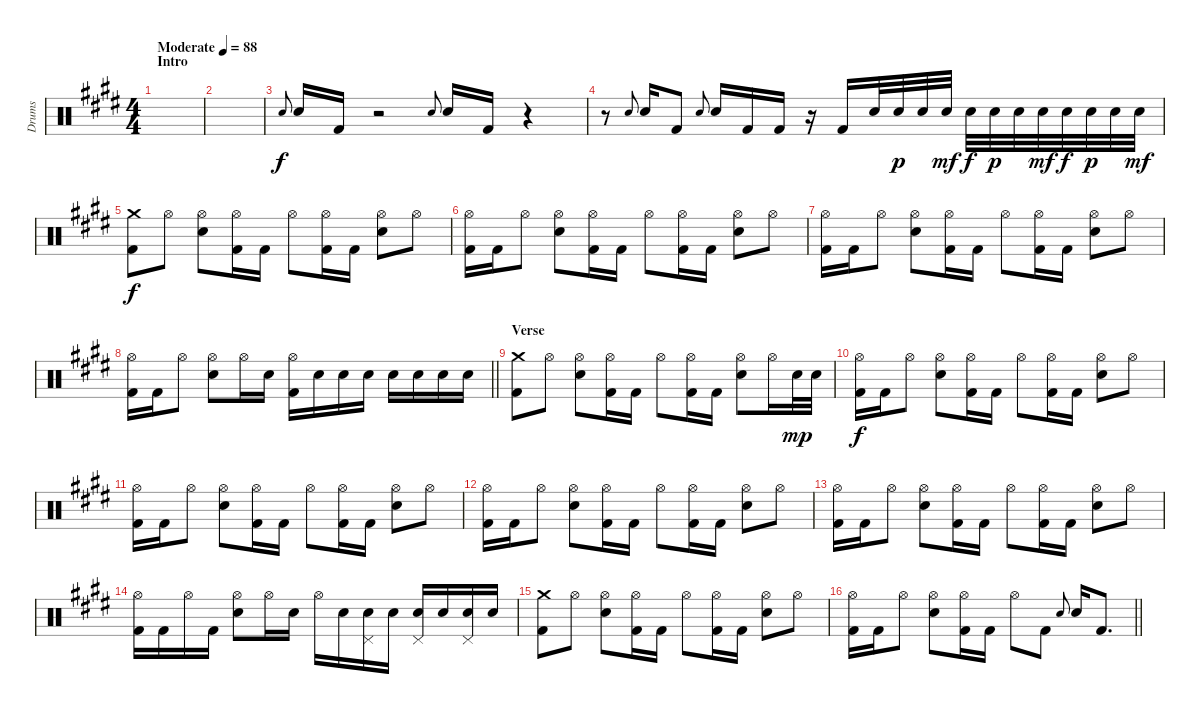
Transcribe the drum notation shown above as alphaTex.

\track ("Drums" "Drums") {instrument percussion}
\staff {score}
\articulation defaults
\ts (4 4)
\section ("" "Intro")
\tempo (88 "Moderate")
\clef neutral
\ks e
|
|
"Electric Snare (hit)".8{gr onbeat} "Electric Snare (hit)".16 "Kick (hit) 2".16 r.2 "Electric Snare (hit)".8{gr onbeat} "Electric Snare (hit)".16 "Kick (hit) 2".16 r.4 |
r.8 "Electric Snare (hit)".8{gr onbeat} "Electric Snare (hit)".16 "Kick (hit) 2".8 "Electric Snare (hit)".8{gr onbeat} "Electric Snare (hit)".16 "Kick (hit) 2".16 "Kick (hit) 2".16 r.16 "Kick (hit) 2".16 "Electric Snare (hit)".32 "Electric Snare (hit)".32{dy p} "Electric Snare (hit)".32 "Electric Snare (hit)".32{dy mf} "Electric Snare (hit)".32{dy f} "Electric Snare (hit)".32{dy p} "Electric Snare (hit)".32 "Electric Snare (hit)".32{dy mf} "Electric Snare (hit)".32{dy f} "Electric Snare (hit)".32{dy p} "Electric Snare (hit)".32 "Electric Snare (hit)".32{dy mf} |
("Kick (hit) 2" "Crash medium (hit)").8{dy f} "Hi-Hat (open)".8 ("Electric Snare (hit)" "Hi-Hat (open)").8 ("Kick (hit) 2" "Hi-Hat (open)").16 "Kick (hit) 2".16 "Hi-Hat (open)".8 ("Kick (hit) 2" "Hi-Hat (open)").16 "Kick (hit) 2".16 ("Electric Snare (hit)" "Hi-Hat (open)").8 "Hi-Hat (open)".8 |
("Hi-Hat (open)" "Kick (hit) 2").16 "Kick (hit) 2".16 "Hi-Hat (open)".8 ("Hi-Hat (open)" "Electric Snare (hit)").8 ("Kick (hit) 2" "Hi-Hat (open)").16 "Kick (hit) 2".16 "Hi-Hat (open)".8 ("Kick (hit) 2" "Hi-Hat (open)").16 "Kick (hit) 2".16 ("Electric Snare (hit)" "Hi-Hat (open)").8 "Hi-Hat (open)".8 |
("Hi-Hat (open)" "Kick (hit) 2").16 "Kick (hit) 2".16 "Hi-Hat (open)".8 ("Hi-Hat (open)" "Electric Snare (hit)").8 ("Kick (hit) 2" "Hi-Hat (open)").16 "Kick (hit) 2".16 "Hi-Hat (open)".8 ("Kick (hit) 2" "Hi-Hat (open)").16 "Kick (hit) 2".16 ("Electric Snare (hit)" "Hi-Hat (open)").8 "Hi-Hat (open)".8 |
\barLineRight lightlight
("Hi-Hat (open)" "Kick (hit) 2").16 "Kick (hit) 2".16 "Hi-Hat (open)".8 ("Hi-Hat (open)" "Electric Snare (hit)").8 "Hi-Hat (open)".16 "Electric Snare (hit)".16 ("Kick (hit) 2" "Hi-Hat (open)").16 "Electric Snare (hit)".16 "Electric Snare (hit)".16 "Electric Snare (hit)".16 "Electric Snare (hit)".16 "Electric Snare (hit)".16 "Electric Snare (hit)".16 "Electric Snare (hit)".16 |
\section ("" "Verse")
("Kick (hit) 2" "Crash medium (hit)").8 "Hi-Hat (open)".8 ("Electric Snare (hit)" "Hi-Hat (open)").8 ("Kick (hit) 2" "Hi-Hat (open)").16 "Kick (hit) 2".16 "Hi-Hat (open)".8 ("Kick (hit) 2" "Hi-Hat (open)").16 "Kick (hit) 2".16 ("Electric Snare (hit)" "Hi-Hat (open)").8 "Hi-Hat (open)".16 "Electric Snare (hit)".32{dy mp} "Electric Snare (hit)".32 |
("Hi-Hat (open)" "Kick (hit) 2").16{dy f} "Kick (hit) 2".16 "Hi-Hat (open)".8 ("Hi-Hat (open)" "Electric Snare (hit)").8 ("Kick (hit) 2" "Hi-Hat (open)").16 "Kick (hit) 2".16 "Hi-Hat (open)".8 ("Kick (hit) 2" "Hi-Hat (open)").16 "Kick (hit) 2".16 ("Electric Snare (hit)" "Hi-Hat (open)").8 "Hi-Hat (open)".8 |
("Hi-Hat (open)" "Kick (hit) 2").16 "Kick (hit) 2".16 "Hi-Hat (open)".8 ("Hi-Hat (open)" "Electric Snare (hit)").8 ("Kick (hit) 2" "Hi-Hat (open)").16 "Kick (hit) 2".16 "Hi-Hat (open)".8 ("Kick (hit) 2" "Hi-Hat (open)").16 "Kick (hit) 2".16 ("Electric Snare (hit)" "Hi-Hat (open)").8 "Hi-Hat (open)".8 |
("Hi-Hat (open)" "Kick (hit) 2").16 "Kick (hit) 2".16 "Hi-Hat (open)".8 ("Hi-Hat (open)" "Electric Snare (hit)").8 ("Kick (hit) 2" "Hi-Hat (open)").16 "Kick (hit) 2".16 "Hi-Hat (open)".8 ("Kick (hit) 2" "Hi-Hat (open)").16 "Kick (hit) 2".16 ("Electric Snare (hit)" "Hi-Hat (open)").8 "Hi-Hat (open)".8 |
("Hi-Hat (open)" "Kick (hit) 2").16 "Kick (hit) 2".16 "Hi-Hat (open)".8 ("Hi-Hat (open)" "Electric Snare (hit)").8 ("Kick (hit) 2" "Hi-Hat (open)").16 "Kick (hit) 2".16 "Hi-Hat (open)".8 ("Kick (hit) 2" "Hi-Hat (open)").16 "Kick (hit) 2".16 ("Electric Snare (hit)" "Hi-Hat (open)").8 "Hi-Hat (open)".8 |
("Hi-Hat (open)" "Kick (hit) 2").16 "Kick (hit) 2".16 "Hi-Hat (open)".16 "Kick (hit) 2".16 ("Electric Snare (hit)" "Hi-Hat (open)").8 "Hi-Hat (open)".16 "Electric Snare (hit)".16 "Hi-Hat (open)".16 "Electric Snare (hit)".16 ("Electric Snare (hit)" "Pedal Hi-Hat (hit)").16 "Electric Snare (hit)".16 ("Electric Snare (hit)" "Pedal Hi-Hat (hit)").16 "Electric Snare (hit)".16 ("Electric Snare (hit)" "Pedal Hi-Hat (hit)").16 "Electric Snare (hit)".16 |
("Kick (hit) 2" "Crash medium (hit)").8 "Hi-Hat (open)".8 ("Electric Snare (hit)" "Hi-Hat (open)").8 ("Kick (hit) 2" "Hi-Hat (open)").16 "Kick (hit) 2".16 "Hi-Hat (open)".8 ("Kick (hit) 2" "Hi-Hat (open)").16 "Kick (hit) 2".16 ("Electric Snare (hit)" "Hi-Hat (open)").8 "Hi-Hat (open)".8 |
\barLineRight lightlight
("Hi-Hat (open)" "Kick (hit) 2").16 "Kick (hit) 2".16 "Hi-Hat (open)".8 ("Hi-Hat (open)" "Electric Snare (hit)").8 ("Kick (hit) 2" "Hi-Hat (open)").16 "Kick (hit) 2".16 "Hi-Hat (open)".8 "Kick (hit) 2".8 "Electric Snare (hit)".8{gr onbeat} "Electric Snare (hit)".16 "Kick (hit) 2".8{d}
